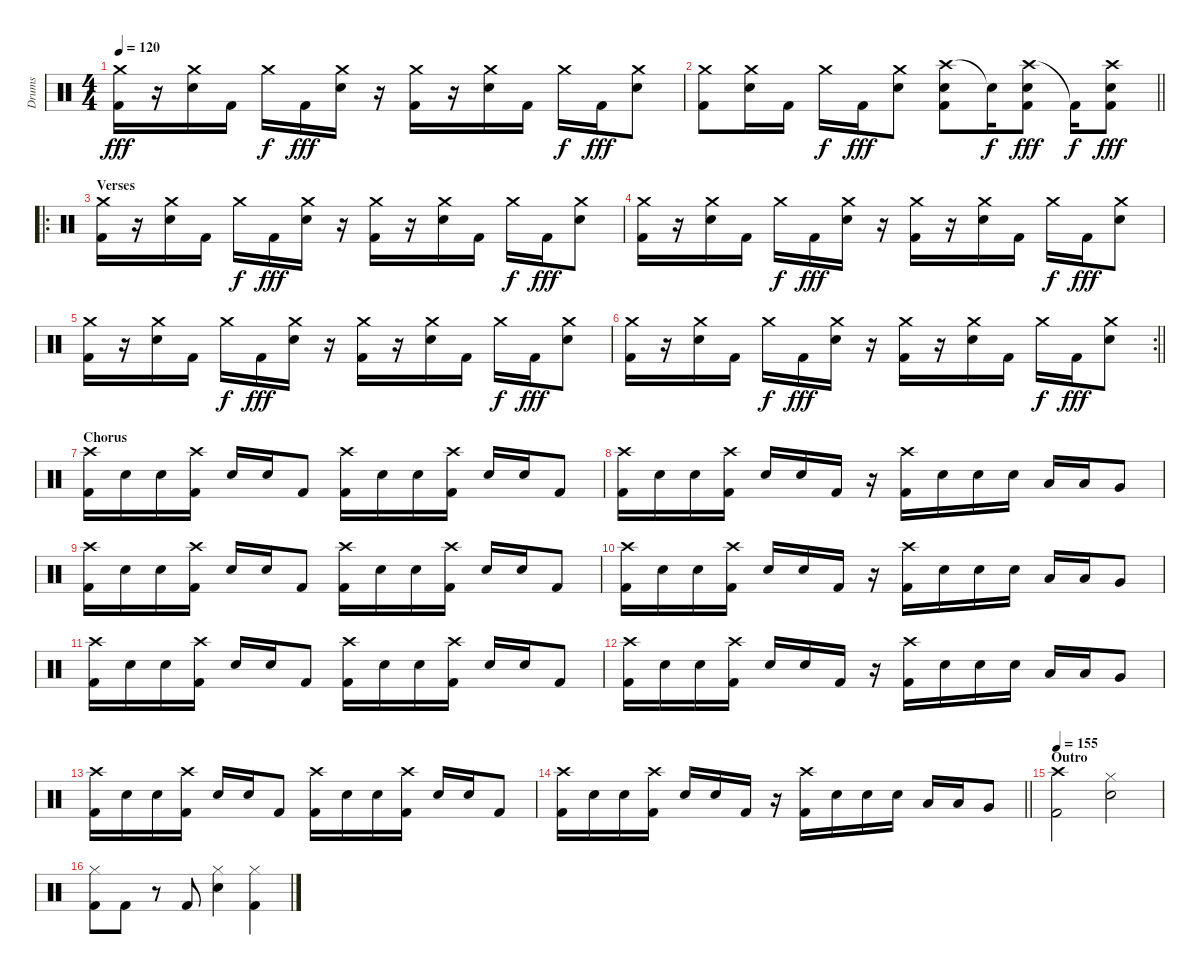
\track ("Drums" "Drums") {instrument percussion}
\staff {score}
\articulation defaults
\ts (4 4)
\tempo 120
\clef neutral
\ks c
("Crash medium (hit)" "Kick (hit) 2").16{dy fff} r.16 ("Crash medium (hit)" "Electric Snare (hit)").16 "Kick (hit) 2".16 "Crash medium (hit)".16{dy f} "Kick (hit) 2".16{dy fff} ("Crash medium (hit)" "Electric Snare (hit)").16 r.16 ("Crash medium (hit)" "Kick (hit) 2").16 r.16 ("Crash medium (hit)" "Electric Snare (hit)").16 "Kick (hit) 2".16 "Crash medium (hit)".16{dy f} "Kick (hit) 2".16{dy fff} ("Crash medium (hit)" "Electric Snare (hit)").8 |
\barLineRight lightlight
("Crash medium (hit)" "Kick (hit) 2").8 ("Crash medium (hit)" "Electric Snare (hit)").16 "Kick (hit) 2".16 "Crash medium (hit)".16{dy f} "Kick (hit) 2".16{dy fff} ("Crash medium (hit)" "Electric Snare (hit)").8 ("Crash high (hit)" "Electric Snare (hit)" "Kick (hit) 2").8 "Electric Snare (hit)"{t}.16{dy f} ("Crash high (hit)" "Electric Snare (hit)" "Kick (hit) 2").8{dy fff} "Kick (hit) 2"{t}.16{dy f} ("Crash high (hit)" "Electric Snare (hit)" "Kick (hit) 2").8{dy fff} |
\ro
\section ("" "Verses")
("Crash medium (hit)" "Kick (hit) 2").16 r.16 ("Crash medium (hit)" "Electric Snare (hit)").16 "Kick (hit) 2".16 "Crash medium (hit)".16{dy f} "Kick (hit) 2".16{dy fff} ("Crash medium (hit)" "Electric Snare (hit)").16 r.16 ("Crash medium (hit)" "Kick (hit) 2").16 r.16 ("Crash medium (hit)" "Electric Snare (hit)").16 "Kick (hit) 2".16 "Crash medium (hit)".16{dy f} "Kick (hit) 2".16{dy fff} ("Crash medium (hit)" "Electric Snare (hit)").8 |
("Crash medium (hit)" "Kick (hit) 2").16 r.16 ("Crash medium (hit)" "Electric Snare (hit)").16 "Kick (hit) 2".16 "Crash medium (hit)".16{dy f} "Kick (hit) 2".16{dy fff} ("Crash medium (hit)" "Electric Snare (hit)").16 r.16 ("Crash medium (hit)" "Kick (hit) 2").16 r.16 ("Crash medium (hit)" "Electric Snare (hit)").16 "Kick (hit) 2".16 "Crash medium (hit)".16{dy f} "Kick (hit) 2".16{dy fff} ("Crash medium (hit)" "Electric Snare (hit)").8 |
("Crash medium (hit)" "Kick (hit) 2").16 r.16 ("Crash medium (hit)" "Electric Snare (hit)").16 "Kick (hit) 2".16 "Crash medium (hit)".16{dy f} "Kick (hit) 2".16{dy fff} ("Crash medium (hit)" "Electric Snare (hit)").16 r.16 ("Crash medium (hit)" "Kick (hit) 2").16 r.16 ("Crash medium (hit)" "Electric Snare (hit)").16 "Kick (hit) 2".16 "Crash medium (hit)".16{dy f} "Kick (hit) 2".16{dy fff} ("Crash medium (hit)" "Electric Snare (hit)").8 |
\rc 2
\barLineRight lightlight
("Crash medium (hit)" "Kick (hit) 2").16 r.16 ("Crash medium (hit)" "Electric Snare (hit)").16 "Kick (hit) 2".16 "Crash medium (hit)".16{dy f} "Kick (hit) 2".16{dy fff} ("Crash medium (hit)" "Electric Snare (hit)").16 r.16 ("Crash medium (hit)" "Kick (hit) 2").16 r.16 ("Crash medium (hit)" "Electric Snare (hit)").16 "Kick (hit) 2".16 "Crash medium (hit)".16{dy f} "Kick (hit) 2".16{dy fff} ("Crash medium (hit)" "Electric Snare (hit)").8 |
\section ("" "Chorus")
("Crash high (hit)" "Kick (hit) 2").16 "Electric Snare (hit)".16 "Electric Snare (hit)".16 ("Crash high (hit)" "Kick (hit) 2").16 "Electric Snare (hit)".16 "Electric Snare (hit)".16 "Kick (hit) 2".8 ("Crash high (hit)" "Kick (hit) 2").16 "Electric Snare (hit)".16 "Electric Snare (hit)".16 ("Crash high (hit)" "Kick (hit) 2").16 "Electric Snare (hit)".16 "Electric Snare (hit)".16 "Kick (hit) 2".8 |
("Crash high (hit)" "Kick (hit) 2").16 "Electric Snare (hit)".16 "Electric Snare (hit)".16 ("Crash high (hit)" "Kick (hit) 2").16 "Electric Snare (hit)".16 "Electric Snare (hit)".16 "Kick (hit) 2".16 r.16 ("Crash high (hit)" "Kick (hit) 2").16 "Electric Snare (hit)".16 "Electric Snare (hit)".16 "Electric Snare (hit)".16 "Low Tom (hit)".16 "Low Tom (hit)".16 "Very Low Tom (hit)".8 |
("Crash high (hit)" "Kick (hit) 2").16 "Electric Snare (hit)".16 "Electric Snare (hit)".16 ("Crash high (hit)" "Kick (hit) 2").16 "Electric Snare (hit)".16 "Electric Snare (hit)".16 "Kick (hit) 2".8 ("Crash high (hit)" "Kick (hit) 2").16 "Electric Snare (hit)".16 "Electric Snare (hit)".16 ("Crash high (hit)" "Kick (hit) 2").16 "Electric Snare (hit)".16 "Electric Snare (hit)".16 "Kick (hit) 2".8 |
("Crash high (hit)" "Kick (hit) 2").16 "Electric Snare (hit)".16 "Electric Snare (hit)".16 ("Crash high (hit)" "Kick (hit) 2").16 "Electric Snare (hit)".16 "Electric Snare (hit)".16 "Kick (hit) 2".16 r.16 ("Crash high (hit)" "Kick (hit) 2").16 "Electric Snare (hit)".16 "Electric Snare (hit)".16 "Electric Snare (hit)".16 "Low Tom (hit)".16 "Low Tom (hit)".16 "Very Low Tom (hit)".8 |
("Crash high (hit)" "Kick (hit) 2").16 "Electric Snare (hit)".16 "Electric Snare (hit)".16 ("Crash high (hit)" "Kick (hit) 2").16 "Electric Snare (hit)".16 "Electric Snare (hit)".16 "Kick (hit) 2".8 ("Crash high (hit)" "Kick (hit) 2").16 "Electric Snare (hit)".16 "Electric Snare (hit)".16 ("Crash high (hit)" "Kick (hit) 2").16 "Electric Snare (hit)".16 "Electric Snare (hit)".16 "Kick (hit) 2".8 |
("Crash high (hit)" "Kick (hit) 2").16 "Electric Snare (hit)".16 "Electric Snare (hit)".16 ("Crash high (hit)" "Kick (hit) 2").16 "Electric Snare (hit)".16 "Electric Snare (hit)".16 "Kick (hit) 2".16 r.16 ("Crash high (hit)" "Kick (hit) 2").16 "Electric Snare (hit)".16 "Electric Snare (hit)".16 "Electric Snare (hit)".16 "Low Tom (hit)".16 "Low Tom (hit)".16 "Very Low Tom (hit)".8 |
("Crash high (hit)" "Kick (hit) 2").16 "Electric Snare (hit)".16 "Electric Snare (hit)".16 ("Crash high (hit)" "Kick (hit) 2").16 "Electric Snare (hit)".16 "Electric Snare (hit)".16 "Kick (hit) 2".8 ("Crash high (hit)" "Kick (hit) 2").16 "Electric Snare (hit)".16 "Electric Snare (hit)".16 ("Crash high (hit)" "Kick (hit) 2").16 "Electric Snare (hit)".16 "Electric Snare (hit)".16 "Kick (hit) 2".8 |
\barLineRight lightlight
("Crash high (hit)" "Kick (hit) 2").16 "Electric Snare (hit)".16 "Electric Snare (hit)".16 ("Crash high (hit)" "Kick (hit) 2").16 "Electric Snare (hit)".16 "Electric Snare (hit)".16 "Kick (hit) 2".16 r.16 ("Crash high (hit)" "Kick (hit) 2").16 "Electric Snare (hit)".16 "Electric Snare (hit)".16 "Electric Snare (hit)".16 "Low Tom (hit)".16 "Low Tom (hit)".16 "Very Low Tom (hit)".8 |
\section ("" "Outro")
\tempo 155
("Crash high (hit)" "Kick (hit) 2").2 ("Hi-Hat (closed)" "Electric Snare (hit)").2 |
("Hi-Hat (closed)" "Kick (hit) 2").8 "Kick (hit) 2".8 r.8 "Kick (hit) 2".8 ("Hi-Hat (closed)" "Electric Snare (hit)").4 ("Hi-Hat (closed)" "Kick (hit) 2").4
